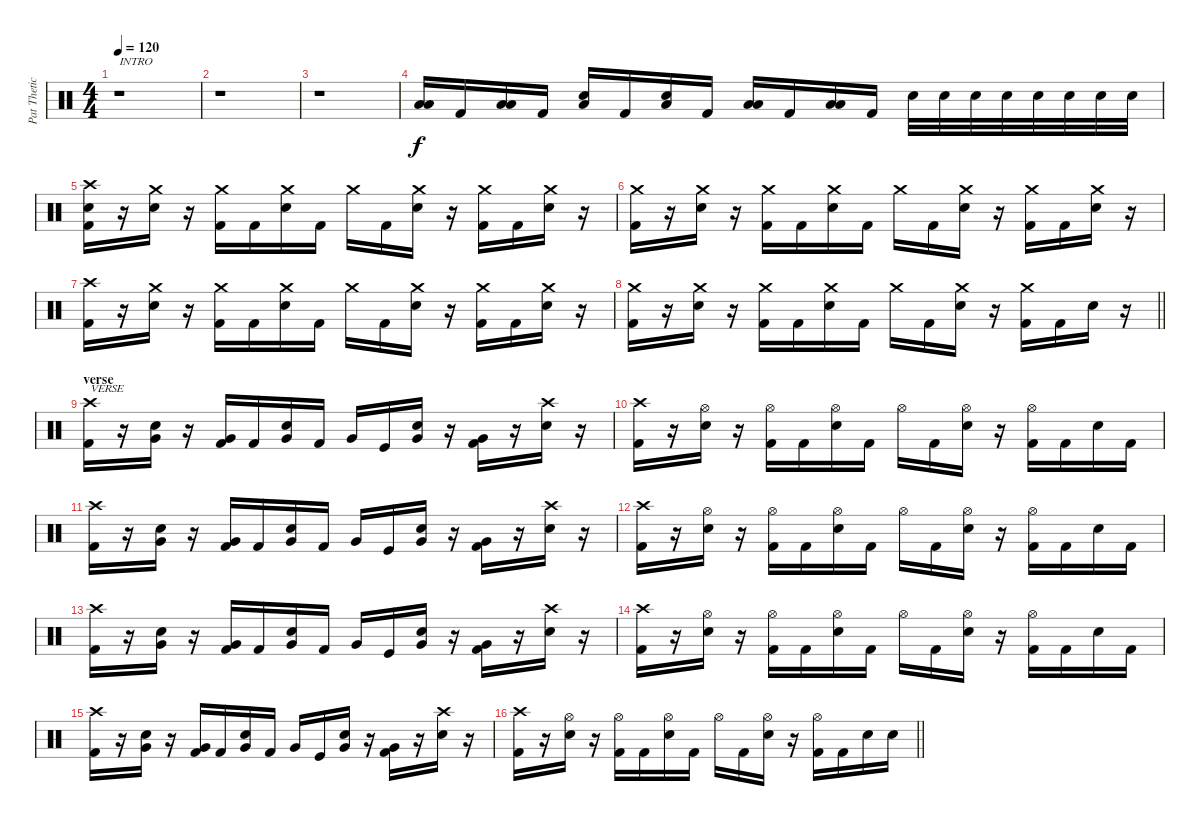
\track ("Pat Thetic" "Pat Thetic") {instrument percussion}
\staff {score}
\articulation defaults
\ts (4 4)
\tempo 120
\clef neutral
\ks c
r.1{txt "INTRO" dy f} |
r.1 |
r.1 |
("Low Tom (hit)" "Low Floor Tom (hit)").16 "Kick (hit) 2".16 ("Low Tom (hit)" "Low Floor Tom (hit)").16 "Kick (hit) 2".16 ("Snare (hit) 2" "Low Floor Tom (hit)").16 "Kick (hit) 2".16 ("Snare (hit) 2" "Low Floor Tom (hit)").16 "Kick (hit) 2".16 ("Low Tom (hit)" "Low Floor Tom (hit)").16 "Kick (hit) 2".16 ("Low Tom (hit)" "Low Floor Tom (hit)").16 "Kick (hit) 2".16 "Snare (hit) 2".32 "Snare (hit) 2".32 "Snare (hit) 2".32 "Snare (hit) 2".32 "Snare (hit) 2".32 "Snare (hit) 2".32 "Snare (hit) 2".32 "Snare (hit) 2".32 |
("Crash high (hit)" "Snare (hit) 2" "Kick (hit) 2").16 r.16 ("Crash medium (hit)" "Snare (hit) 2").16 r.16 ("Crash medium (hit)" "Kick (hit) 2").16 "Kick (hit) 2".16 ("Crash medium (hit)" "Snare (hit) 2").16 "Kick (hit) 2".16 "Crash medium (hit)".16 "Kick (hit) 2".16 ("Crash medium (hit)" "Snare (hit) 2").16 r.16 ("Crash medium (hit)" "Kick (hit) 2").16 "Kick (hit) 2".16 ("Crash medium (hit)" "Snare (hit) 2").16 r.16 |
("Crash medium (hit)" "Kick (hit) 2").16 r.16 ("Crash medium (hit)" "Snare (hit) 2").16 r.16 ("Crash medium (hit)" "Kick (hit) 2").16 "Kick (hit) 2".16 ("Crash medium (hit)" "Snare (hit) 2").16 "Kick (hit) 2".16 "Crash medium (hit)".16 "Kick (hit) 2".16 ("Crash medium (hit)" "Snare (hit) 2").16 r.16 ("Crash medium (hit)" "Kick (hit) 2").16 "Kick (hit) 2".16 ("Crash medium (hit)" "Snare (hit) 2").16 r.16 |
("Crash high (hit)" "Kick (hit) 2").16 r.16 ("Crash medium (hit)" "Snare (hit) 2").16 r.16 ("Crash medium (hit)" "Kick (hit) 2").16 "Kick (hit) 2".16 ("Crash medium (hit)" "Snare (hit) 2").16 "Kick (hit) 2".16 "Crash medium (hit)".16 "Kick (hit) 2".16 ("Crash medium (hit)" "Snare (hit) 2").16 r.16 ("Crash medium (hit)" "Kick (hit) 2").16 "Kick (hit) 2".16 ("Crash medium (hit)" "Snare (hit) 2").16 r.16 |
\barLineRight lightlight
("Crash medium (hit)" "Kick (hit) 2").16 r.16 ("Crash medium (hit)" "Snare (hit) 2").16 r.16 ("Crash medium (hit)" "Kick (hit) 2").16 "Kick (hit) 2".16 ("Crash medium (hit)" "Snare (hit) 2").16 "Kick (hit) 2".16 "Crash medium (hit)".16 "Kick (hit) 2".16 ("Crash medium (hit)" "Snare (hit) 2").16 r.16 ("Crash medium (hit)" "Kick (hit) 2").16 "Kick (hit) 2".16 "Snare (hit) 2".16 r.16 |
\section ("" "verse")
("Crash high (hit)" "Kick (hit) 2").16{txt "VERSE"} r.16 ("Snare (hit) 2" "Very Low Tom (hit)").16 r.16 ("Very Low Tom (hit)" "Kick (hit) 2").16 "Kick (hit) 2".16 ("Snare (hit) 2" "Very Low Tom (hit)").16 "Kick (hit) 2".16 "Very Low Tom (hit)".16 "Kick (hit)".16 ("Snare (hit) 2" "Very Low Tom (hit)").16 r.16 ("Very Low Tom (hit)" "Kick (hit) 2").16 r.16 ("Crash high (hit)" "Snare (hit) 2").16 r.16 |
("Crash high (hit)" "Kick (hit) 2").16 r.16 ("Hi-Hat (open)" "Snare (hit) 2").16 r.16 ("Hi-Hat (open)" "Kick (hit) 2").16 "Kick (hit) 2".16 ("Hi-Hat (open)" "Snare (hit) 2").16 "Kick (hit) 2".16 "Hi-Hat (open)".16 "Kick (hit) 2".16 ("Hi-Hat (open)" "Snare (hit) 2").16 r.16 ("Hi-Hat (open)" "Kick (hit) 2").16 "Kick (hit) 2".16 "Snare (hit) 2".16 "Kick (hit) 2".16 |
("Crash high (hit)" "Kick (hit) 2").16 r.16 ("Snare (hit) 2" "Very Low Tom (hit)").16 r.16 ("Very Low Tom (hit)" "Kick (hit) 2").16 "Kick (hit) 2".16 ("Snare (hit) 2" "Very Low Tom (hit)").16 "Kick (hit) 2".16 "Very Low Tom (hit)".16 "Kick (hit)".16 ("Snare (hit) 2" "Very Low Tom (hit)").16 r.16 ("Very Low Tom (hit)" "Kick (hit) 2").16 r.16 ("Crash high (hit)" "Snare (hit) 2").16 r.16 |
("Crash high (hit)" "Kick (hit) 2").16 r.16 ("Hi-Hat (open)" "Snare (hit) 2").16 r.16 ("Hi-Hat (open)" "Kick (hit) 2").16 "Kick (hit) 2".16 ("Hi-Hat (open)" "Snare (hit) 2").16 "Kick (hit) 2".16 "Hi-Hat (open)".16 "Kick (hit) 2".16 ("Hi-Hat (open)" "Snare (hit) 2").16 r.16 ("Hi-Hat (open)" "Kick (hit) 2").16 "Kick (hit) 2".16 "Snare (hit) 2".16 "Kick (hit) 2".16 |
("Crash high (hit)" "Kick (hit) 2").16 r.16 ("Snare (hit) 2" "Very Low Tom (hit)").16 r.16 ("Very Low Tom (hit)" "Kick (hit) 2").16 "Kick (hit) 2".16 ("Snare (hit) 2" "Very Low Tom (hit)").16 "Kick (hit) 2".16 "Very Low Tom (hit)".16 "Kick (hit)".16 ("Snare (hit) 2" "Very Low Tom (hit)").16 r.16 ("Very Low Tom (hit)" "Kick (hit) 2").16 r.16 ("Crash high (hit)" "Snare (hit) 2").16 r.16 |
("Crash high (hit)" "Kick (hit) 2").16 r.16 ("Hi-Hat (open)" "Snare (hit) 2").16 r.16 ("Hi-Hat (open)" "Kick (hit) 2").16 "Kick (hit) 2".16 ("Hi-Hat (open)" "Snare (hit) 2").16 "Kick (hit) 2".16 "Hi-Hat (open)".16 "Kick (hit) 2".16 ("Hi-Hat (open)" "Snare (hit) 2").16 r.16 ("Hi-Hat (open)" "Kick (hit) 2").16 "Kick (hit) 2".16 "Snare (hit) 2".16 "Kick (hit) 2".16 |
("Crash high (hit)" "Kick (hit) 2").16 r.16 ("Snare (hit) 2" "Very Low Tom (hit)").16 r.16 ("Very Low Tom (hit)" "Kick (hit) 2").16 "Kick (hit) 2".16 ("Snare (hit) 2" "Very Low Tom (hit)").16 "Kick (hit) 2".16 "Very Low Tom (hit)".16 "Kick (hit)".16 ("Snare (hit) 2" "Very Low Tom (hit)").16 r.16 ("Very Low Tom (hit)" "Kick (hit) 2").16 r.16 ("Crash high (hit)" "Snare (hit) 2").16 r.16 |
\barLineRight lightlight
("Crash high (hit)" "Kick (hit) 2").16 r.16 ("Hi-Hat (open)" "Snare (hit) 2").16 r.16 ("Hi-Hat (open)" "Kick (hit) 2").16 "Kick (hit) 2".16 ("Hi-Hat (open)" "Snare (hit) 2").16 "Kick (hit) 2".16 "Hi-Hat (open)".16 "Kick (hit) 2".16 ("Hi-Hat (open)" "Snare (hit) 2").16 r.16 ("Hi-Hat (open)" "Kick (hit) 2").16 "Kick (hit) 2".16 "Snare (hit) 2".16 "Snare (hit) 2".16
